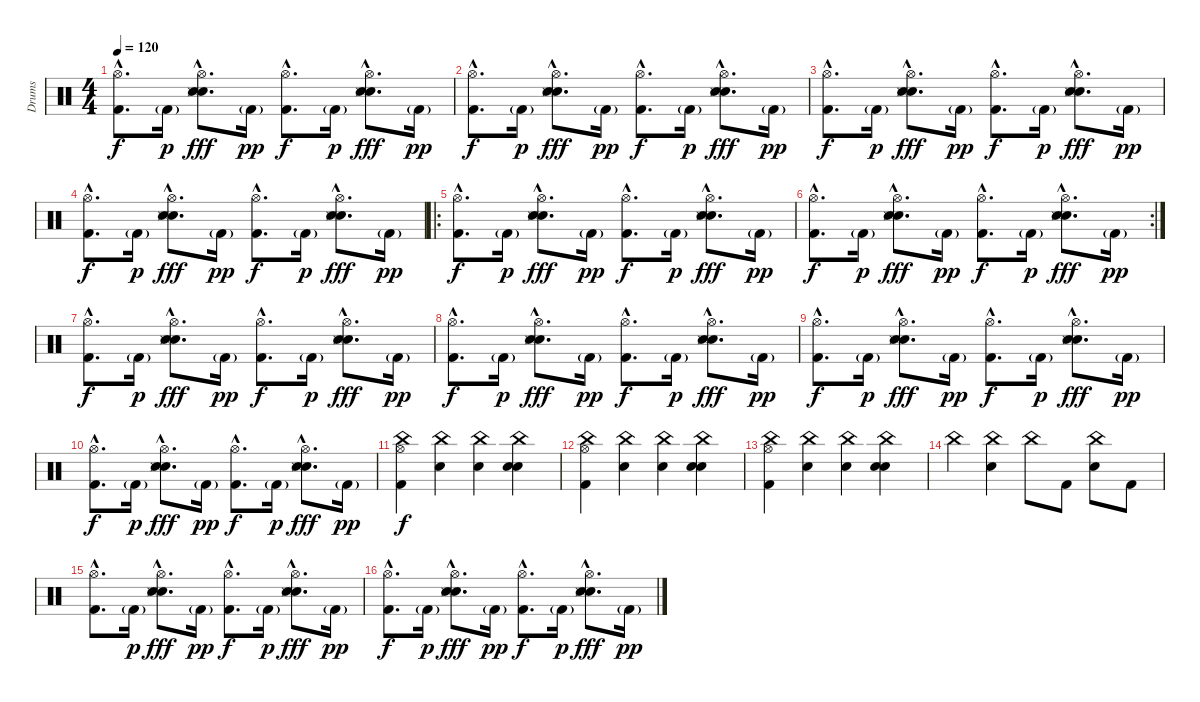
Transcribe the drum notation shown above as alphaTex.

\track ("Drums" "Drums") {instrument percussion}
\staff {score}
\articulation defaults
\ts (4 4)
\tempo 120
\clef neutral
\ks c
("Kick (hit) 2"{hac} "Hi-Hat (open)"{hac}).8{d dy f} "Kick (hit) 2"{g}.16{dy p} ("Hand Clap (hit)"{hac} "Electric Snare (hit)"{hac} "Hi-Hat (open)"{hac} "Snare (side stick) 3"{hac}).8{d dy fff} "Kick (hit) 2"{g}.16{dy pp} ("Kick (hit) 2"{hac} "Hi-Hat (open)"{hac}).8{d dy f} "Kick (hit) 2"{g}.16{dy p} ("Hand Clap (hit)"{hac} "Electric Snare (hit)"{hac} "Hi-Hat (open)"{hac} "Snare (side stick) 3"{hac}).8{d dy fff} "Kick (hit) 2"{g}.16{dy pp} |
("Kick (hit) 2"{hac} "Hi-Hat (open)"{hac}).8{d dy f} "Kick (hit) 2"{g}.16{dy p} ("Hand Clap (hit)"{hac} "Electric Snare (hit)"{hac} "Hi-Hat (open)"{hac} "Snare (side stick) 3"{hac}).8{d dy fff} "Kick (hit) 2"{g}.16{dy pp} ("Kick (hit) 2"{hac} "Hi-Hat (open)"{hac}).8{d dy f} "Kick (hit) 2"{g}.16{dy p} ("Hand Clap (hit)"{hac} "Electric Snare (hit)"{hac} "Hi-Hat (open)"{hac} "Snare (side stick) 3"{hac}).8{d dy fff} "Kick (hit) 2"{g}.16{dy pp} |
("Kick (hit) 2"{hac} "Hi-Hat (open)"{hac}).8{d dy f} "Kick (hit) 2"{g}.16{dy p} ("Hand Clap (hit)"{hac} "Electric Snare (hit)"{hac} "Hi-Hat (open)"{hac} "Snare (side stick) 3"{hac}).8{d dy fff} "Kick (hit) 2"{g}.16{dy pp} ("Kick (hit) 2"{hac} "Hi-Hat (open)"{hac}).8{d dy f} "Kick (hit) 2"{g}.16{dy p} ("Hand Clap (hit)"{hac} "Electric Snare (hit)"{hac} "Hi-Hat (open)"{hac} "Snare (side stick) 3"{hac}).8{d dy fff} "Kick (hit) 2"{g}.16{dy pp} |
("Kick (hit) 2"{hac} "Hi-Hat (open)"{hac}).8{d dy f} "Kick (hit) 2"{g}.16{dy p} ("Hand Clap (hit)"{hac} "Electric Snare (hit)"{hac} "Hi-Hat (open)"{hac} "Snare (side stick) 3"{hac}).8{d dy fff} "Kick (hit) 2"{g}.16{dy pp} ("Kick (hit) 2"{hac} "Hi-Hat (open)"{hac}).8{d dy f} "Kick (hit) 2"{g}.16{dy p} ("Hand Clap (hit)"{hac} "Electric Snare (hit)"{hac} "Hi-Hat (open)"{hac} "Snare (side stick) 3"{hac}).8{d dy fff} "Kick (hit) 2"{g}.16{dy pp} |
\ro
("Kick (hit) 2"{hac} "Hi-Hat (open)"{hac}).8{d dy f} "Kick (hit) 2"{g}.16{dy p} ("Hand Clap (hit)"{hac} "Electric Snare (hit)"{hac} "Hi-Hat (open)"{hac} "Snare (side stick) 3"{hac}).8{d dy fff} "Kick (hit) 2"{g}.16{dy pp} ("Kick (hit) 2"{hac} "Hi-Hat (open)"{hac}).8{d dy f} "Kick (hit) 2"{g}.16{dy p} ("Hand Clap (hit)"{hac} "Electric Snare (hit)"{hac} "Hi-Hat (open)"{hac} "Snare (side stick) 3"{hac}).8{d dy fff} "Kick (hit) 2"{g}.16{dy pp} |
\rc 2
("Kick (hit) 2"{hac} "Hi-Hat (open)"{hac}).8{d dy f} "Kick (hit) 2"{g}.16{dy p} ("Hand Clap (hit)"{hac} "Electric Snare (hit)"{hac} "Hi-Hat (open)"{hac} "Snare (side stick) 3"{hac}).8{d dy fff} "Kick (hit) 2"{g}.16{dy pp} ("Kick (hit) 2"{hac} "Hi-Hat (open)"{hac}).8{d dy f} "Kick (hit) 2"{g}.16{dy p} ("Hand Clap (hit)"{hac} "Electric Snare (hit)"{hac} "Hi-Hat (open)"{hac} "Snare (side stick) 3"{hac}).8{d dy fff} "Kick (hit) 2"{g}.16{dy pp} |
("Kick (hit) 2"{hac} "Hi-Hat (open)"{hac}).8{d dy f} "Kick (hit) 2"{g}.16{dy p} ("Hand Clap (hit)"{hac} "Electric Snare (hit)"{hac} "Hi-Hat (open)"{hac} "Snare (side stick) 3"{hac}).8{d dy fff} "Kick (hit) 2"{g}.16{dy pp} ("Kick (hit) 2"{hac} "Hi-Hat (open)"{hac}).8{d dy f} "Kick (hit) 2"{g}.16{dy p} ("Hand Clap (hit)"{hac} "Electric Snare (hit)"{hac} "Hi-Hat (open)"{hac} "Snare (side stick) 3"{hac}).8{d dy fff} "Kick (hit) 2"{g}.16{dy pp} |
("Kick (hit) 2"{hac} "Hi-Hat (open)"{hac}).8{d dy f} "Kick (hit) 2"{g}.16{dy p} ("Hand Clap (hit)"{hac} "Electric Snare (hit)"{hac} "Hi-Hat (open)"{hac} "Snare (side stick) 3"{hac}).8{d dy fff} "Kick (hit) 2"{g}.16{dy pp} ("Kick (hit) 2"{hac} "Hi-Hat (open)"{hac}).8{d dy f} "Kick (hit) 2"{g}.16{dy p} ("Hand Clap (hit)"{hac} "Electric Snare (hit)"{hac} "Hi-Hat (open)"{hac} "Snare (side stick) 3"{hac}).8{d dy fff} "Kick (hit) 2"{g}.16{dy pp} |
("Kick (hit) 2"{hac} "Hi-Hat (open)"{hac}).8{d dy f} "Kick (hit) 2"{g}.16{dy p} ("Hand Clap (hit)"{hac} "Electric Snare (hit)"{hac} "Hi-Hat (open)"{hac} "Snare (side stick) 3"{hac}).8{d dy fff} "Kick (hit) 2"{g}.16{dy pp} ("Kick (hit) 2"{hac} "Hi-Hat (open)"{hac}).8{d dy f} "Kick (hit) 2"{g}.16{dy p} ("Hand Clap (hit)"{hac} "Electric Snare (hit)"{hac} "Hi-Hat (open)"{hac} "Snare (side stick) 3"{hac}).8{d dy fff} "Kick (hit) 2"{g}.16{dy pp} |
("Kick (hit) 2"{hac} "Hi-Hat (open)"{hac}).8{d dy f} "Kick (hit) 2"{g}.16{dy p} ("Hand Clap (hit)"{hac} "Electric Snare (hit)"{hac} "Hi-Hat (open)"{hac} "Snare (side stick) 3"{hac}).8{d dy fff} "Kick (hit) 2"{g}.16{dy pp} ("Kick (hit) 2"{hac} "Hi-Hat (open)"{hac}).8{d dy f} "Kick (hit) 2"{g}.16{dy p} ("Hand Clap (hit)"{hac} "Electric Snare (hit)"{hac} "Hi-Hat (open)"{hac} "Snare (side stick) 3"{hac}).8{d dy fff} "Kick (hit) 2"{g}.16{dy pp} |
("China (hit)" "Kick (hit) 2" "Hi-Hat (open)").4{dy f} ("China (hit)" "Electric Snare (hit)").4 ("China (hit)" "Electric Snare (hit)").4 ("China (hit)" "Electric Snare (hit)" "Hand Clap (hit)").4 |
("China (hit)" "Kick (hit) 2" "Hi-Hat (open)").4 ("China (hit)" "Electric Snare (hit)").4 ("China (hit)" "Electric Snare (hit)").4 ("China (hit)" "Electric Snare (hit)" "Hand Clap (hit)").4 |
("China (hit)" "Kick (hit) 2" "Hi-Hat (open)").4 ("China (hit)" "Electric Snare (hit)").4 ("China (hit)" "Electric Snare (hit)").4 ("China (hit)" "Electric Snare (hit)" "Hand Clap (hit)").4 |
"China (hit)".4 ("China (hit)" "Electric Snare (hit)").4 "China (hit)".8 "Kick (hit) 2".8 ("China (hit)" "Electric Snare (hit)").8 "Kick (hit) 2".8 |
("Kick (hit) 2"{hac} "Hi-Hat (open)"{hac}).8{d} "Kick (hit) 2"{g}.16{dy p} ("Hand Clap (hit)"{hac} "Electric Snare (hit)"{hac} "Hi-Hat (open)"{hac} "Snare (side stick) 3"{hac}).8{d dy fff} "Kick (hit) 2"{g}.16{dy pp} ("Kick (hit) 2"{hac} "Hi-Hat (open)"{hac}).8{d dy f} "Kick (hit) 2"{g}.16{dy p} ("Hand Clap (hit)"{hac} "Electric Snare (hit)"{hac} "Hi-Hat (open)"{hac} "Snare (side stick) 3"{hac}).8{d dy fff} "Kick (hit) 2"{g}.16{dy pp} |
("Kick (hit) 2"{hac} "Hi-Hat (open)"{hac}).8{d dy f} "Kick (hit) 2"{g}.16{dy p} ("Hand Clap (hit)"{hac} "Electric Snare (hit)"{hac} "Hi-Hat (open)"{hac} "Snare (side stick) 3"{hac}).8{d dy fff} "Kick (hit) 2"{g}.16{dy pp} ("Kick (hit) 2"{hac} "Hi-Hat (open)"{hac}).8{d dy f} "Kick (hit) 2"{g}.16{dy p} ("Hand Clap (hit)"{hac} "Electric Snare (hit)"{hac} "Hi-Hat (open)"{hac} "Snare (side stick) 3"{hac}).8{d dy fff} "Kick (hit) 2"{g}.16{dy pp}
